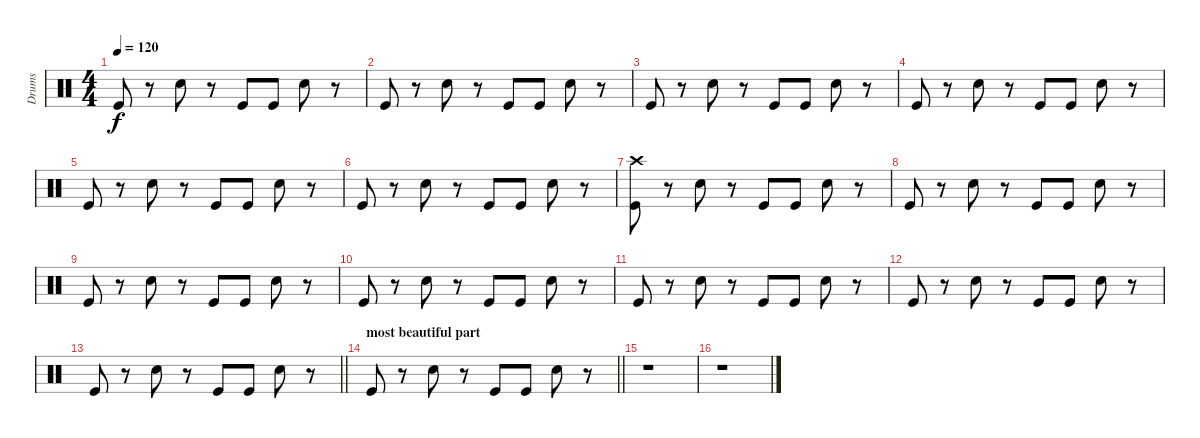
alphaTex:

\track ("Drums" "Drums") {instrument percussion}
\staff {score}
\articulation defaults
\ts (4 4)
\tempo 120
\clef neutral
\ks c "Kick (hit)".8{dy f}
r.8 "Electric Snare (hit)".8 r.8 "Kick (hit)".8 "Kick (hit)".8 "Electric Snare (hit)".8 r.8 |
"Kick (hit)".8 r.8 "Electric Snare (hit)".8 r.8 "Kick (hit)".8 "Kick (hit)".8 "Electric Snare (hit)".8 r.8 |
"Kick (hit)".8 r.8 "Electric Snare (hit)".8 r.8 "Kick (hit)".8 "Kick (hit)".8 "Electric Snare (hit)".8 r.8 |
"Kick (hit)".8 r.8 "Electric Snare (hit)".8 r.8 "Kick (hit)".8 "Kick (hit)".8 "Electric Snare (hit)".8 r.8 |
"Kick (hit)".8 r.8 "Electric Snare (hit)".8 r.8 "Kick (hit)".8 "Kick (hit)".8 "Electric Snare (hit)".8 r.8 |
"Kick (hit)".8 r.8 "Electric Snare (hit)".8 r.8 "Kick (hit)".8 "Kick (hit)".8 "Electric Snare (hit)".8 r.8 |
("Crash high (hit)" "Kick (hit)").8 r.8 "Electric Snare (hit)".8 r.8 "Kick (hit)".8 "Kick (hit)".8 "Electric Snare (hit)".8 r.8 |
"Kick (hit)".8 r.8 "Electric Snare (hit)".8 r.8 "Kick (hit)".8 "Kick (hit)".8 "Electric Snare (hit)".8 r.8 |
"Kick (hit)".8 r.8 "Electric Snare (hit)".8 r.8 "Kick (hit)".8 "Kick (hit)".8 "Electric Snare (hit)".8 r.8 |
"Kick (hit)".8 r.8 "Electric Snare (hit)".8 r.8 "Kick (hit)".8 "Kick (hit)".8 "Electric Snare (hit)".8 r.8 |
"Kick (hit)".8 r.8 "Electric Snare (hit)".8 r.8 "Kick (hit)".8 "Kick (hit)".8 "Electric Snare (hit)".8 r.8 |
"Kick (hit)".8 r.8 "Electric Snare (hit)".8 r.8 "Kick (hit)".8 "Kick (hit)".8 "Electric Snare (hit)".8 r.8 |
\barLineRight lightlight "Kick (hit)".8
r.8 "Electric Snare (hit)".8 r.8 "Kick (hit)".8 "Kick (hit)".8 "Electric Snare (hit)".8 r.8 |
\section ("" "most beautiful part")
\barLineRight lightlight "Kick (hit)".8
r.8 "Electric Snare (hit)".8 r.8 "Kick (hit)".8 "Kick (hit)".8 "Electric Snare (hit)".8 r.8 |
r.1 |
r.1
